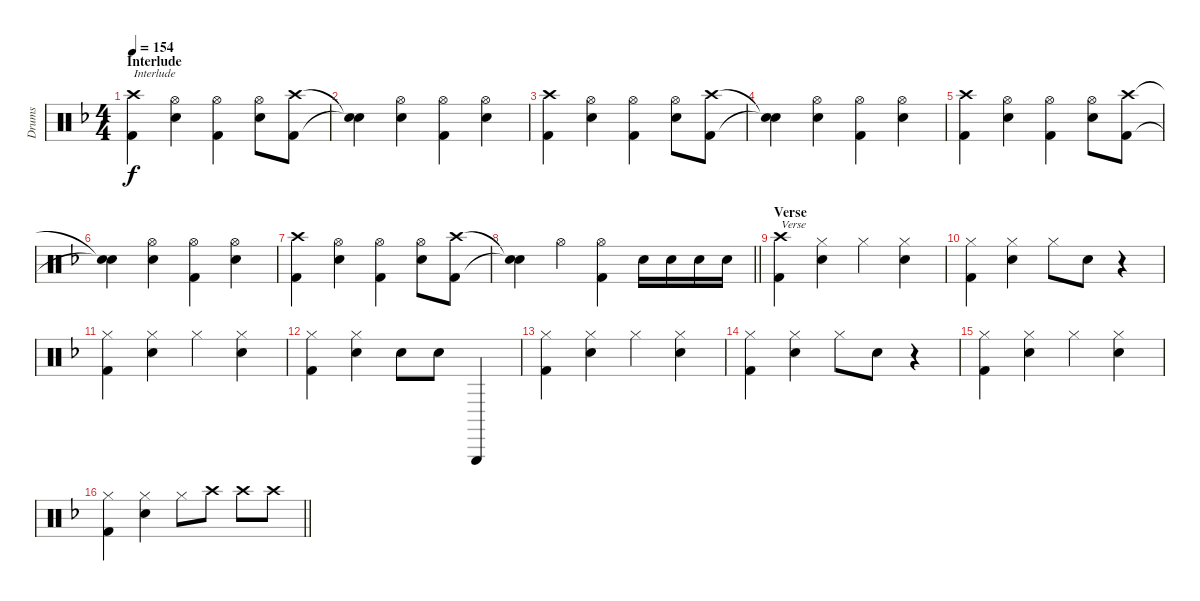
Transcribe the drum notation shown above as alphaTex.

\track ("Drums" "Drums") {instrument percussion}
\staff {score}
\articulation defaults
\ts (4 4)
\section ("" "Interlude")
\tempo 154
\clef neutral
\ks f
("Crash high (hit)" "Kick (hit) 2").4{txt "Interlude" dy f} ("Hi-Hat (open)" "Snare (hit) 2").4 ("Hi-Hat (open)" "Kick (hit) 2").4 ("Hi-Hat (open)" "Snare (hit) 2").8 ("Crash high (hit)" "Kick (hit) 2").8 |
("Snare (hit)"{t} "Snare (hit)"{t}).4 ("Hi-Hat (open)" "Snare (hit) 2").4 ("Hi-Hat (open)" "Kick (hit) 2").4 ("Hi-Hat (open)" "Snare (hit) 2").4 |
("Crash high (hit)" "Kick (hit) 2").4 ("Hi-Hat (open)" "Snare (hit) 2").4 ("Hi-Hat (open)" "Kick (hit) 2").4 ("Hi-Hat (open)" "Snare (hit) 2").8 ("Crash high (hit)" "Kick (hit) 2").8 |
("Snare (hit)"{t} "Snare (hit)"{t}).4 ("Hi-Hat (open)" "Snare (hit) 2").4 ("Hi-Hat (open)" "Kick (hit) 2").4 ("Hi-Hat (open)" "Snare (hit) 2").4 |
("Crash high (hit)" "Kick (hit) 2").4 ("Hi-Hat (open)" "Snare (hit) 2").4 ("Hi-Hat (open)" "Kick (hit) 2").4 ("Hi-Hat (open)" "Snare (hit) 2").8 ("Crash high (hit)" "Kick (hit) 2").8 |
("Snare (hit)"{t} "Snare (hit)"{t}).4 ("Hi-Hat (open)" "Snare (hit) 2").4 ("Hi-Hat (open)" "Kick (hit) 2").4 ("Hi-Hat (open)" "Snare (hit) 2").4 |
("Crash high (hit)" "Kick (hit) 2").4 ("Hi-Hat (open)" "Snare (hit) 2").4 ("Hi-Hat (open)" "Kick (hit) 2").4 ("Hi-Hat (open)" "Snare (hit) 2").8 ("Crash high (hit)" "Kick (hit) 2").8 |
\barLineRight lightlight
("Snare (hit)"{t} "Snare (hit)"{t}).4 "Hi-Hat (open)".4 ("Hi-Hat (open)" "Kick (hit) 2").4 "Snare (hit) 2".16 "Snare (hit) 2".16 "Snare (hit) 2".16 "Snare (hit) 2".16 |
\section ("" "Verse")
("Crash high (hit)" "Kick (hit) 2").4{txt "Verse"} ("Hi-Hat (closed)" "Snare (hit) 2").4 "Hi-Hat (closed)".4 ("Hi-Hat (closed)" "Snare (hit) 2").4 |
("Hi-Hat (closed)" "Kick (hit) 2").4 ("Hi-Hat (closed)" "Snare (hit) 2").4 "Hi-Hat (closed)".8 "Snare (hit) 2".8 r.4 |
("Hi-Hat (closed)" "Kick (hit) 2").4 ("Hi-Hat (closed)" "Snare (hit) 2").4 "Hi-Hat (closed)".4 ("Hi-Hat (closed)" "Snare (hit) 2").4 |
("Hi-Hat (closed)" "Kick (hit) 2").4 ("Hi-Hat (closed)" "Snare (hit) 2").4 "Snare (hit) 2".8 "Snare (hit) 2".8 "Triangle (hit)".4 |
("Hi-Hat (closed)" "Kick (hit) 2").4 ("Hi-Hat (closed)" "Snare (hit) 2").4 "Hi-Hat (closed)".4 ("Hi-Hat (closed)" "Snare (hit) 2").4 |
("Hi-Hat (closed)" "Kick (hit) 2").4 ("Hi-Hat (closed)" "Snare (hit) 2").4 "Hi-Hat (closed)".8 "Snare (hit) 2".8 r.4 |
("Hi-Hat (closed)" "Kick (hit) 2").4 ("Hi-Hat (closed)" "Snare (hit) 2").4 "Hi-Hat (closed)".4 ("Hi-Hat (closed)" "Snare (hit) 2").4 |
\barLineRight lightlight
("Hi-Hat (closed)" "Kick (hit) 2").4 ("Hi-Hat (closed)" "Snare (hit) 2").4 "Hi-Hat (closed)".8 "Crash high (hit)".8 "Crash high (hit)".8 "Crash high (hit)".8
